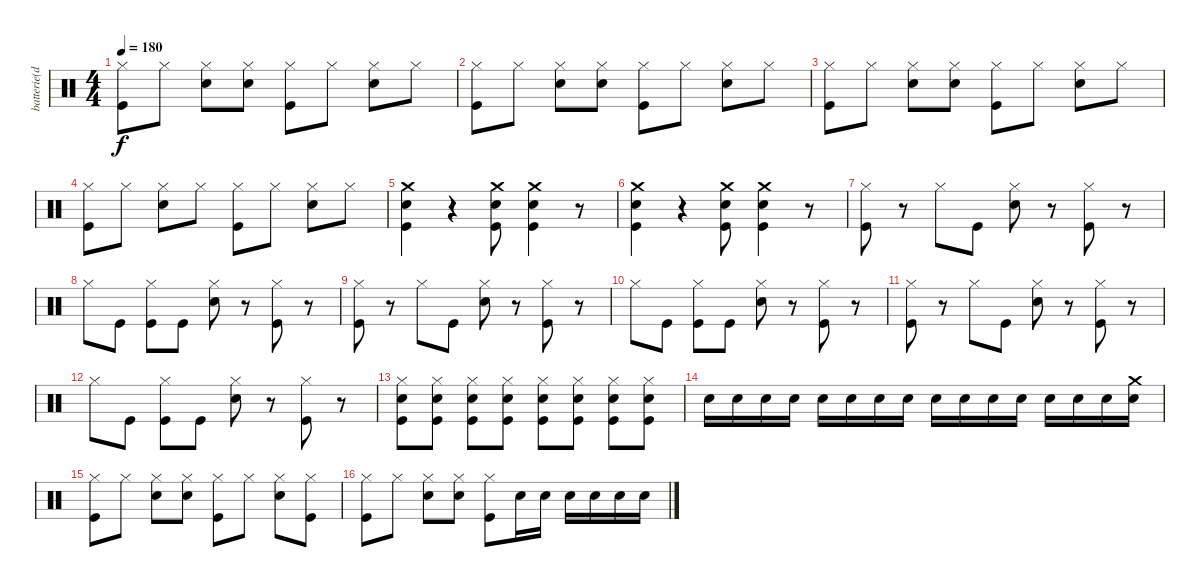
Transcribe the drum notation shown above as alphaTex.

\track ("batterie(dave)" "batterie(d") {instrument percussion}
\staff {score}
\articulation defaults
\ts (4 4)
\tempo 180
\clef neutral
\ks c
("Hi-Hat (closed)" "Kick (hit)").8{dy f} "Hi-Hat (closed)".8 ("Hi-Hat (closed)" "Snare (hit) 2").8 ("Hi-Hat (closed)" "Snare (hit) 2").8 ("Hi-Hat (closed)" "Kick (hit)").8 "Hi-Hat (closed)".8 ("Hi-Hat (closed)" "Snare (hit) 2").8 "Hi-Hat (closed)".8 |
("Hi-Hat (closed)" "Kick (hit)").8 "Hi-Hat (closed)".8 ("Hi-Hat (closed)" "Snare (hit) 2").8 ("Hi-Hat (closed)" "Snare (hit) 2").8 ("Hi-Hat (closed)" "Kick (hit)").8 "Hi-Hat (closed)".8 ("Hi-Hat (closed)" "Snare (hit) 2").8 "Hi-Hat (closed)".8 |
("Hi-Hat (closed)" "Kick (hit)").8 "Hi-Hat (closed)".8 ("Hi-Hat (closed)" "Snare (hit) 2").8 ("Hi-Hat (closed)" "Snare (hit) 2").8 ("Hi-Hat (closed)" "Kick (hit)").8 "Hi-Hat (closed)".8 ("Hi-Hat (closed)" "Snare (hit) 2").8 "Hi-Hat (closed)".8 |
("Hi-Hat (closed)" "Kick (hit)").8 "Hi-Hat (closed)".8 ("Hi-Hat (closed)" "Snare (hit) 2").8 "Hi-Hat (closed)".8 ("Hi-Hat (closed)" "Kick (hit)").8 "Hi-Hat (closed)".8 ("Hi-Hat (closed)" "Snare (hit) 2").8 "Hi-Hat (closed)".8 |
("Crash medium (hit)" "Snare (hit) 2" "Kick (hit)").4 r.4 ("Crash medium (hit)" "Snare (hit) 2" "Kick (hit)").8 ("Crash medium (hit)" "Snare (hit) 2" "Kick (hit)").4 r.8 |
("Crash medium (hit)" "Snare (hit) 2" "Kick (hit)").4 r.4 ("Crash medium (hit)" "Snare (hit) 2" "Kick (hit)").8 ("Crash medium (hit)" "Snare (hit) 2" "Kick (hit)").4 r.8 |
("Hi-Hat (closed)" "Kick (hit)").8 r.8 "Hi-Hat (closed)".8 "Kick (hit)".8 ("Hi-Hat (closed)" "Snare (hit) 2").8 r.8 ("Hi-Hat (closed)" "Kick (hit)").8 r.8 |
"Hi-Hat (closed)".8 "Kick (hit)".8 ("Hi-Hat (closed)" "Kick (hit)").8 "Kick (hit)".8 ("Hi-Hat (closed)" "Snare (hit) 2").8 r.8 ("Hi-Hat (closed)" "Kick (hit)").8 r.8 |
("Hi-Hat (closed)" "Kick (hit)").8 r.8 "Hi-Hat (closed)".8 "Kick (hit)".8 ("Hi-Hat (closed)" "Snare (hit) 2").8 r.8 ("Hi-Hat (closed)" "Kick (hit)").8 r.8 |
"Hi-Hat (closed)".8 "Kick (hit)".8 ("Hi-Hat (closed)" "Kick (hit)").8 "Kick (hit)".8 ("Hi-Hat (closed)" "Snare (hit) 2").8 r.8 ("Hi-Hat (closed)" "Kick (hit)").8 r.8 |
("Hi-Hat (closed)" "Kick (hit)").8 r.8 "Hi-Hat (closed)".8 "Kick (hit)".8 ("Hi-Hat (closed)" "Snare (hit) 2").8 r.8 ("Hi-Hat (closed)" "Kick (hit)").8 r.8 |
"Hi-Hat (closed)".8 "Kick (hit)".8 ("Hi-Hat (closed)" "Kick (hit)").8 "Kick (hit)".8 ("Hi-Hat (closed)" "Snare (hit) 2").8 r.8 ("Hi-Hat (closed)" "Kick (hit)").8 r.8 |
("Hi-Hat (closed)" "Snare (hit) 2" "Kick (hit)").8 ("Hi-Hat (closed)" "Snare (hit) 2" "Kick (hit)").8 ("Hi-Hat (closed)" "Snare (hit) 2" "Kick (hit)").8 ("Hi-Hat (closed)" "Snare (hit) 2" "Kick (hit)").8 ("Hi-Hat (closed)" "Snare (hit) 2" "Kick (hit)").8 ("Hi-Hat (closed)" "Snare (hit) 2" "Kick (hit)").8 ("Hi-Hat (closed)" "Snare (hit) 2" "Kick (hit)").8 ("Hi-Hat (closed)" "Snare (hit) 2" "Kick (hit)").8 |
"Snare (hit) 2".16 "Snare (hit) 2".16 "Snare (hit) 2".16 "Snare (hit) 2".16 "Snare (hit) 2".16 "Snare (hit) 2".16 "Snare (hit) 2".16 "Snare (hit) 2".16 "Snare (hit) 2".16 "Snare (hit) 2".16 "Snare (hit) 2".16 "Snare (hit) 2".16 "Snare (hit) 2".16 "Snare (hit) 2".16 "Snare (hit) 2".16 ("Crash medium (hit)" "Snare (hit) 2").16 |
("Hi-Hat (closed)" "Kick (hit)").8 "Hi-Hat (closed)".8 ("Hi-Hat (closed)" "Snare (hit) 2").8 ("Hi-Hat (closed)" "Snare (hit) 2").8 ("Hi-Hat (closed)" "Kick (hit)").8 "Hi-Hat (closed)".8 ("Hi-Hat (closed)" "Snare (hit) 2").8 ("Hi-Hat (closed)" "Kick (hit)").8 |
("Hi-Hat (closed)" "Kick (hit)").8 "Hi-Hat (closed)".8 ("Hi-Hat (closed)" "Snare (hit) 2").8 ("Hi-Hat (closed)" "Snare (hit) 2").8 ("Hi-Hat (closed)" "Kick (hit)").8 "Snare (hit) 2".16 "Snare (hit) 2".16 "Snare (hit) 2".16 "Snare (hit) 2".16 "Snare (hit) 2".16 "Snare (hit) 2".16
